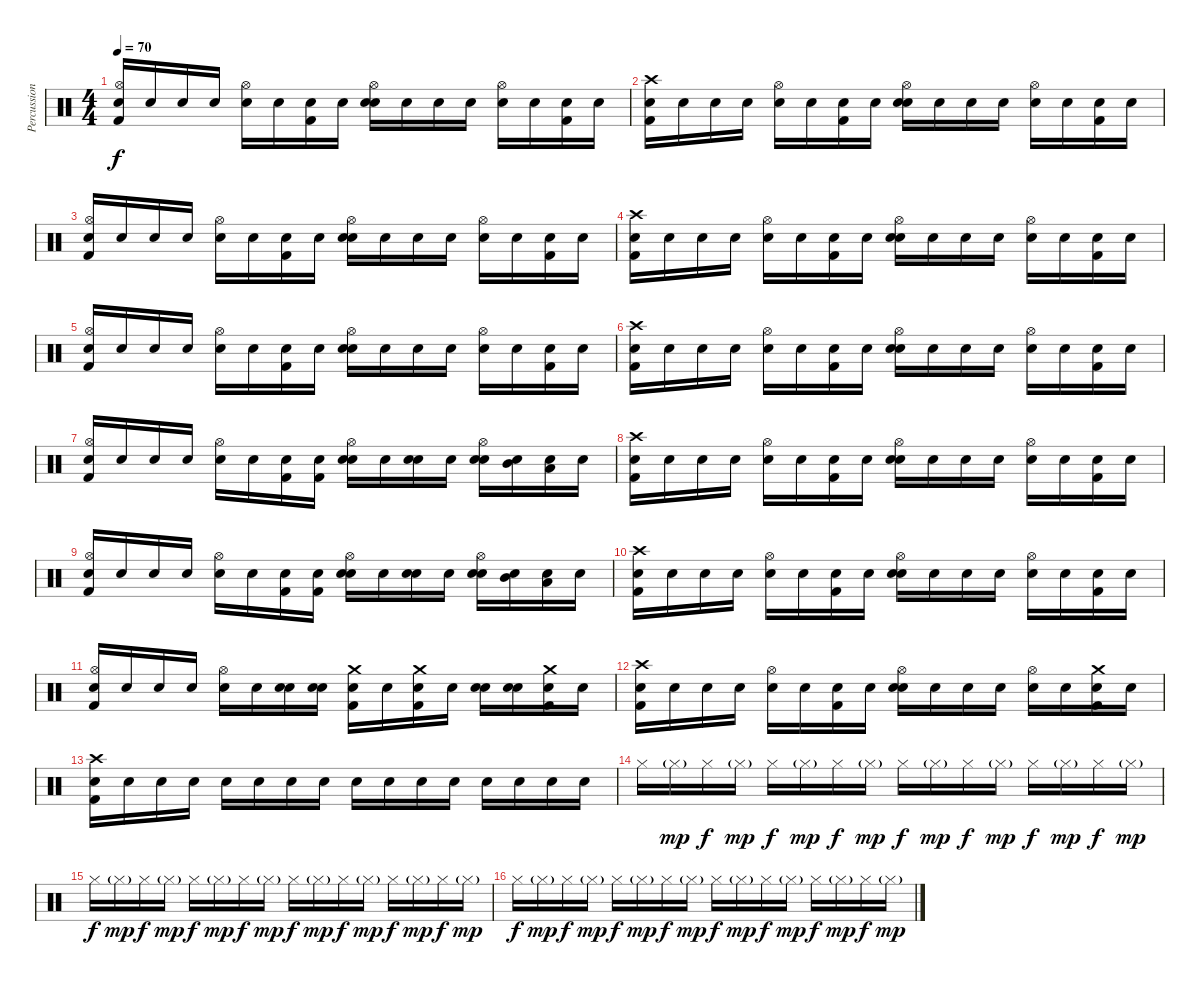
\track ("Percussion" "Percussion") {instrument percussion}
\staff {score}
\articulation defaults
\ts (4 4)
\tempo 70
\clef neutral
\ks c
("Snare (hit)" "Hi-Hat (open)" "Kick (hit) 2").16{dy f} "Snare (hit)".16 "Snare (hit)".16 "Snare (hit)".16 ("Snare (hit)" "Hi-Hat (open)").16 "Snare (hit)".16 ("Snare (hit)" "Kick (hit) 2").16 "Snare (hit)".16 ("Snare (hit)" "Hi-Hat (open)" "Snare (hit) 2").16 "Snare (hit)".16 "Snare (hit)".16 "Snare (hit)".16 ("Snare (hit)" "Hi-Hat (open)").16 "Snare (hit)".16 ("Snare (hit)" "Kick (hit) 2").16 "Snare (hit)".16 |
("Snare (hit)" "Crash high (hit)" "Kick (hit) 2").16 "Snare (hit)".16 "Snare (hit)".16 "Snare (hit)".16 ("Snare (hit)" "Hi-Hat (open)").16 "Snare (hit)".16 ("Snare (hit)" "Kick (hit) 2").16 "Snare (hit)".16 ("Snare (hit)" "Hi-Hat (open)" "Snare (hit) 2").16 "Snare (hit)".16 "Snare (hit)".16 "Snare (hit)".16 ("Snare (hit)" "Hi-Hat (open)").16 "Snare (hit)".16 ("Snare (hit)" "Kick (hit) 2").16 "Snare (hit)".16 |
("Snare (hit)" "Hi-Hat (open)" "Kick (hit) 2").16 "Snare (hit)".16 "Snare (hit)".16 "Snare (hit)".16 ("Snare (hit)" "Hi-Hat (open)").16 "Snare (hit)".16 ("Snare (hit)" "Kick (hit) 2").16 "Snare (hit)".16 ("Snare (hit)" "Hi-Hat (open)" "Snare (hit) 2").16 "Snare (hit)".16 "Snare (hit)".16 "Snare (hit)".16 ("Snare (hit)" "Hi-Hat (open)").16 "Snare (hit)".16 ("Snare (hit)" "Kick (hit) 2").16 "Snare (hit)".16 |
("Snare (hit)" "Crash high (hit)" "Kick (hit) 2").16 "Snare (hit)".16 "Snare (hit)".16 "Snare (hit)".16 ("Snare (hit)" "Hi-Hat (open)").16 "Snare (hit)".16 ("Snare (hit)" "Kick (hit) 2").16 "Snare (hit)".16 ("Snare (hit)" "Hi-Hat (open)" "Snare (hit) 2").16 "Snare (hit)".16 "Snare (hit)".16 "Snare (hit)".16 ("Snare (hit)" "Hi-Hat (open)").16 "Snare (hit)".16 ("Snare (hit)" "Kick (hit) 2").16 "Snare (hit)".16 |
("Snare (hit)" "Hi-Hat (open)" "Kick (hit) 2").16 "Snare (hit)".16 "Snare (hit)".16 "Snare (hit)".16 ("Snare (hit)" "Hi-Hat (open)").16 "Snare (hit)".16 ("Snare (hit)" "Kick (hit) 2").16 "Snare (hit)".16 ("Snare (hit)" "Hi-Hat (open)" "Snare (hit) 2").16 "Snare (hit)".16 "Snare (hit)".16 "Snare (hit)".16 ("Snare (hit)" "Hi-Hat (open)").16 "Snare (hit)".16 ("Snare (hit)" "Kick (hit) 2").16 "Snare (hit)".16 |
("Snare (hit)" "Crash high (hit)" "Kick (hit) 2").16 "Snare (hit)".16 "Snare (hit)".16 "Snare (hit)".16 ("Snare (hit)" "Hi-Hat (open)").16 "Snare (hit)".16 ("Snare (hit)" "Kick (hit) 2").16 "Snare (hit)".16 ("Snare (hit)" "Hi-Hat (open)" "Snare (hit) 2").16 "Snare (hit)".16 "Snare (hit)".16 "Snare (hit)".16 ("Snare (hit)" "Hi-Hat (open)").16 "Snare (hit)".16 ("Snare (hit)" "Kick (hit) 2").16 "Snare (hit)".16 |
("Snare (hit)" "Hi-Hat (open)" "Kick (hit) 2").16 "Snare (hit)".16 "Snare (hit)".16 "Snare (hit)".16 ("Snare (hit)" "Hi-Hat (open)").16 "Snare (hit)".16 ("Snare (hit)" "Kick (hit) 2").16 ("Snare (hit)" "Kick (hit) 2").16 ("Snare (hit)" "Hi-Hat (open)" "Snare (hit) 2").16 "Snare (hit)".16 ("Snare (hit)" "Snare (hit) 2").16 "Snare (hit)".16 ("Snare (hit)" "Hi-Hat (open)" "Snare (hit) 2").16 ("Snare (hit)" "Mid Tom (hit)").16 ("Snare (hit)" "Low Tom (hit)").16 "Snare (hit)".16 |
("Snare (hit)" "Crash high (hit)" "Kick (hit) 2").16 "Snare (hit)".16 "Snare (hit)".16 "Snare (hit)".16 ("Snare (hit)" "Hi-Hat (open)").16 "Snare (hit)".16 ("Snare (hit)" "Kick (hit) 2").16 "Snare (hit)".16 ("Snare (hit)" "Hi-Hat (open)" "Snare (hit) 2").16 "Snare (hit)".16 "Snare (hit)".16 "Snare (hit)".16 ("Snare (hit)" "Hi-Hat (open)").16 "Snare (hit)".16 ("Snare (hit)" "Kick (hit) 2").16 "Snare (hit)".16 |
("Snare (hit)" "Hi-Hat (open)" "Kick (hit) 2").16 "Snare (hit)".16 "Snare (hit)".16 "Snare (hit)".16 ("Snare (hit)" "Hi-Hat (open)").16 "Snare (hit)".16 ("Snare (hit)" "Kick (hit) 2").16 ("Snare (hit)" "Kick (hit) 2").16 ("Snare (hit)" "Hi-Hat (open)" "Snare (hit) 2").16 "Snare (hit)".16 ("Snare (hit)" "Snare (hit) 2").16 "Snare (hit)".16 ("Snare (hit)" "Hi-Hat (open)" "Snare (hit) 2").16 ("Snare (hit)" "Mid Tom (hit)").16 ("Snare (hit)" "Low Tom (hit)").16 "Snare (hit)".16 |
("Snare (hit)" "Crash high (hit)" "Kick (hit) 2").16 "Snare (hit)".16 "Snare (hit)".16 "Snare (hit)".16 ("Snare (hit)" "Hi-Hat (open)").16 "Snare (hit)".16 ("Snare (hit)" "Kick (hit) 2").16 "Snare (hit)".16 ("Snare (hit)" "Hi-Hat (open)" "Snare (hit) 2").16 "Snare (hit)".16 "Snare (hit)".16 "Snare (hit)".16 ("Snare (hit)" "Hi-Hat (open)").16 "Snare (hit)".16 ("Snare (hit)" "Kick (hit) 2").16 "Snare (hit)".16 |
("Snare (hit)" "Hi-Hat (open)" "Kick (hit) 2").16 "Snare (hit)".16 "Snare (hit)".16 "Snare (hit)".16 ("Snare (hit)" "Hi-Hat (open)").16 "Snare (hit)".16 ("Snare (hit)" "Snare (hit) 2").16 ("Snare (hit)" "Snare (hit) 2").16 ("Snare (hit)" "Crash medium (hit)" "Kick (hit) 2").16 "Snare (hit)".16 ("Snare (hit)" "Crash medium (hit)" "Kick (hit) 2").16 "Snare (hit)".16 ("Snare (hit)" "Snare (hit) 2").16 ("Snare (hit)" "Snare (hit) 2").16 ("Snare (hit)" "Crash medium (hit)" "Kick (hit) 2").16 "Snare (hit)".16 |
("Snare (hit)" "Crash high (hit)" "Kick (hit) 2").16 "Snare (hit)".16 "Snare (hit)".16 "Snare (hit)".16 ("Snare (hit)" "Hi-Hat (open)").16 "Snare (hit)".16 ("Snare (hit)" "Kick (hit) 2").16 "Snare (hit)".16 ("Snare (hit)" "Hi-Hat (open)" "Snare (hit) 2").16 "Snare (hit)".16 "Snare (hit)".16 "Snare (hit)".16 ("Snare (hit)" "Hi-Hat (open)").16 "Snare (hit)".16 ("Snare (hit)" "Crash medium (hit)" "Kick (hit) 2").16 "Snare (hit)".16 |
("Snare (hit)" "Crash high (hit)" "Kick (hit) 2").16 "Snare (hit)".16 "Snare (hit)".16 "Snare (hit)".16 "Snare (hit)".16 "Snare (hit)".16 "Snare (hit)".16 "Snare (hit)".16 "Snare (hit)".16 "Snare (hit)".16 "Snare (hit)".16 "Snare (hit)".16 "Snare (hit)".16 "Snare (hit)".16 "Snare (hit)".16 "Snare (hit)".16 |
"Hi-Hat (closed)".16 "Hi-Hat (closed)"{g}.16{dy mp} "Hi-Hat (closed)".16{dy f} "Hi-Hat (closed)"{g}.16{dy mp} "Hi-Hat (closed)".16{dy f} "Hi-Hat (closed)"{g}.16{dy mp} "Hi-Hat (closed)".16{dy f} "Hi-Hat (closed)"{g}.16{dy mp} "Hi-Hat (closed)".16{dy f} "Hi-Hat (closed)"{g}.16{dy mp} "Hi-Hat (closed)".16{dy f} "Hi-Hat (closed)"{g}.16{dy mp} "Hi-Hat (closed)".16{dy f} "Hi-Hat (closed)"{g}.16{dy mp} "Hi-Hat (closed)".16{dy f} "Hi-Hat (closed)"{g}.16{dy mp} |
"Hi-Hat (closed)".16{dy f} "Hi-Hat (closed)"{g}.16{dy mp} "Hi-Hat (closed)".16{dy f} "Hi-Hat (closed)"{g}.16{dy mp} "Hi-Hat (closed)".16{dy f} "Hi-Hat (closed)"{g}.16{dy mp} "Hi-Hat (closed)".16{dy f} "Hi-Hat (closed)"{g}.16{dy mp} "Hi-Hat (closed)".16{dy f} "Hi-Hat (closed)"{g}.16{dy mp} "Hi-Hat (closed)".16{dy f} "Hi-Hat (closed)"{g}.16{dy mp} "Hi-Hat (closed)".16{dy f} "Hi-Hat (closed)"{g}.16{dy mp} "Hi-Hat (closed)".16{dy f} "Hi-Hat (closed)"{g}.16{dy mp} |
"Hi-Hat (closed)".16{dy f} "Hi-Hat (closed)"{g}.16{dy mp} "Hi-Hat (closed)".16{dy f} "Hi-Hat (closed)"{g}.16{dy mp} "Hi-Hat (closed)".16{dy f} "Hi-Hat (closed)"{g}.16{dy mp} "Hi-Hat (closed)".16{dy f} "Hi-Hat (closed)"{g}.16{dy mp} "Hi-Hat (closed)".16{dy f} "Hi-Hat (closed)"{g}.16{dy mp} "Hi-Hat (closed)".16{dy f} "Hi-Hat (closed)"{g}.16{dy mp} "Hi-Hat (closed)".16{dy f} "Hi-Hat (closed)"{g}.16{dy mp} "Hi-Hat (closed)".16{dy f} "Hi-Hat (closed)"{g}.16{dy mp}
